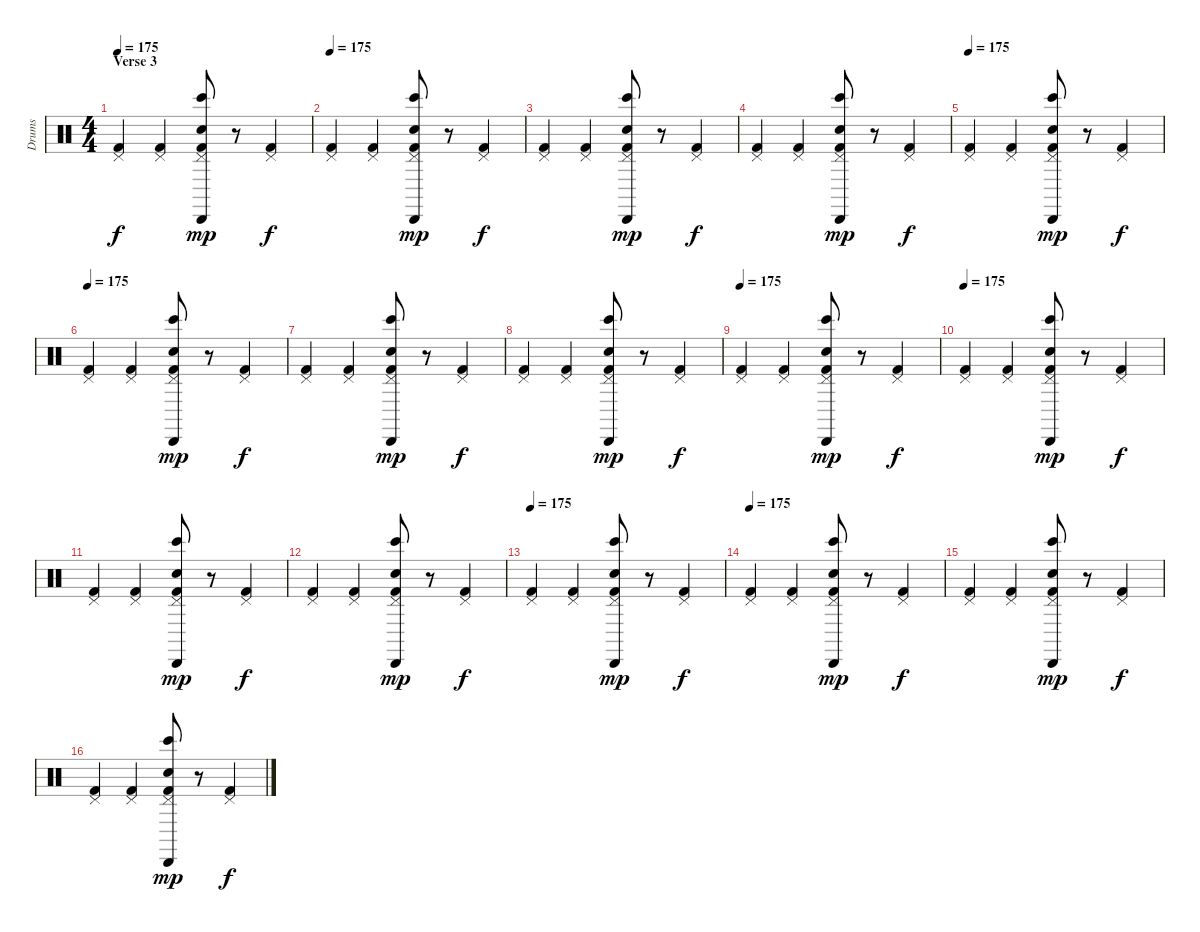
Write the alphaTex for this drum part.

\track ("Drums" "Drums") {instrument percussion}
\staff {score}
\articulation defaults
\ts (4 4)
\section ("" "Verse 3")
\tempo 175
\clef neutral
\ks c
("Pedal Hi-Hat (hit)" "Kick (hit) 2").4{dy f} ("Pedal Hi-Hat (hit)" "Kick (hit) 2").4 ("Cabasa (hit)" "Bongo High (hit)" "Pedal Hi-Hat (hit)" "Snare (hit) 2" "Kick (hit) 2").8{dy mp} r.8{volume 0} ("Pedal Hi-Hat (hit)" "Kick (hit) 2").4{dy f volume 14} |
\tempo 175
("Pedal Hi-Hat (hit)" "Kick (hit) 2").4 ("Pedal Hi-Hat (hit)" "Kick (hit) 2").4 ("Cabasa (hit)" "Bongo High (hit)" "Pedal Hi-Hat (hit)" "Snare (hit) 2" "Kick (hit) 2").8{dy mp} r.8{volume 0} ("Pedal Hi-Hat (hit)" "Kick (hit) 2").4{dy f volume 14} |
("Pedal Hi-Hat (hit)" "Kick (hit) 2").4 ("Pedal Hi-Hat (hit)" "Kick (hit) 2").4 ("Cabasa (hit)" "Bongo High (hit)" "Pedal Hi-Hat (hit)" "Snare (hit) 2" "Kick (hit) 2").8{dy mp} r.8{volume 0} ("Pedal Hi-Hat (hit)" "Kick (hit) 2").4{dy f volume 14} |
("Pedal Hi-Hat (hit)" "Kick (hit) 2").4 ("Pedal Hi-Hat (hit)" "Kick (hit) 2").4 ("Cabasa (hit)" "Bongo High (hit)" "Pedal Hi-Hat (hit)" "Snare (hit) 2" "Kick (hit) 2").8{dy mp} r.8{volume 0} ("Pedal Hi-Hat (hit)" "Kick (hit) 2").4{dy f volume 14} |
\tempo 175
("Pedal Hi-Hat (hit)" "Kick (hit) 2").4 ("Pedal Hi-Hat (hit)" "Kick (hit) 2").4 ("Cabasa (hit)" "Bongo High (hit)" "Pedal Hi-Hat (hit)" "Snare (hit) 2" "Kick (hit) 2").8{dy mp} r.8{volume 0} ("Pedal Hi-Hat (hit)" "Kick (hit) 2").4{dy f volume 14} |
\tempo 175
("Pedal Hi-Hat (hit)" "Kick (hit) 2").4 ("Pedal Hi-Hat (hit)" "Kick (hit) 2").4 ("Cabasa (hit)" "Bongo High (hit)" "Pedal Hi-Hat (hit)" "Snare (hit) 2" "Kick (hit) 2").8{dy mp} r.8{volume 0} ("Pedal Hi-Hat (hit)" "Kick (hit) 2").4{dy f volume 14} |
("Pedal Hi-Hat (hit)" "Kick (hit) 2").4 ("Pedal Hi-Hat (hit)" "Kick (hit) 2").4 ("Cabasa (hit)" "Bongo High (hit)" "Pedal Hi-Hat (hit)" "Snare (hit) 2" "Kick (hit) 2").8{dy mp} r.8{volume 0} ("Pedal Hi-Hat (hit)" "Kick (hit) 2").4{dy f volume 14} |
("Pedal Hi-Hat (hit)" "Kick (hit) 2").4 ("Pedal Hi-Hat (hit)" "Kick (hit) 2").4 ("Cabasa (hit)" "Bongo High (hit)" "Pedal Hi-Hat (hit)" "Snare (hit) 2" "Kick (hit) 2").8{dy mp} r.8{volume 0} ("Pedal Hi-Hat (hit)" "Kick (hit) 2").4{dy f volume 14} |
\tempo 175
("Pedal Hi-Hat (hit)" "Kick (hit) 2").4 ("Pedal Hi-Hat (hit)" "Kick (hit) 2").4 ("Cabasa (hit)" "Bongo High (hit)" "Pedal Hi-Hat (hit)" "Snare (hit) 2" "Kick (hit) 2").8{dy mp} r.8{volume 0} ("Pedal Hi-Hat (hit)" "Kick (hit) 2").4{dy f volume 14} |
\tempo 175
("Pedal Hi-Hat (hit)" "Kick (hit) 2").4 ("Pedal Hi-Hat (hit)" "Kick (hit) 2").4 ("Cabasa (hit)" "Bongo High (hit)" "Pedal Hi-Hat (hit)" "Snare (hit) 2" "Kick (hit) 2").8{dy mp} r.8{volume 0} ("Pedal Hi-Hat (hit)" "Kick (hit) 2").4{dy f volume 14} |
("Pedal Hi-Hat (hit)" "Kick (hit) 2").4 ("Pedal Hi-Hat (hit)" "Kick (hit) 2").4 ("Cabasa (hit)" "Bongo High (hit)" "Pedal Hi-Hat (hit)" "Snare (hit) 2" "Kick (hit) 2").8{dy mp} r.8{volume 0} ("Pedal Hi-Hat (hit)" "Kick (hit) 2").4{dy f volume 14} |
("Pedal Hi-Hat (hit)" "Kick (hit) 2").4 ("Pedal Hi-Hat (hit)" "Kick (hit) 2").4 ("Cabasa (hit)" "Bongo High (hit)" "Pedal Hi-Hat (hit)" "Snare (hit) 2" "Kick (hit) 2").8{dy mp} r.8{volume 0} ("Pedal Hi-Hat (hit)" "Kick (hit) 2").4{dy f volume 14} |
\tempo 175
("Pedal Hi-Hat (hit)" "Kick (hit) 2").4 ("Pedal Hi-Hat (hit)" "Kick (hit) 2").4 ("Cabasa (hit)" "Bongo High (hit)" "Pedal Hi-Hat (hit)" "Snare (hit) 2" "Kick (hit) 2").8{dy mp} r.8{volume 0} ("Pedal Hi-Hat (hit)" "Kick (hit) 2").4{dy f volume 14} |
\tempo 175
("Pedal Hi-Hat (hit)" "Kick (hit) 2").4 ("Pedal Hi-Hat (hit)" "Kick (hit) 2").4 ("Cabasa (hit)" "Bongo High (hit)" "Pedal Hi-Hat (hit)" "Snare (hit) 2" "Kick (hit) 2").8{dy mp} r.8{volume 0} ("Pedal Hi-Hat (hit)" "Kick (hit) 2").4{dy f volume 14} |
("Pedal Hi-Hat (hit)" "Kick (hit) 2").4 ("Pedal Hi-Hat (hit)" "Kick (hit) 2").4 ("Cabasa (hit)" "Bongo High (hit)" "Pedal Hi-Hat (hit)" "Snare (hit) 2" "Kick (hit) 2").8{dy mp} r.8{volume 0} ("Pedal Hi-Hat (hit)" "Kick (hit) 2").4{dy f volume 14} |
("Pedal Hi-Hat (hit)" "Kick (hit) 2").4 ("Pedal Hi-Hat (hit)" "Kick (hit) 2").4 ("Cabasa (hit)" "Bongo High (hit)" "Pedal Hi-Hat (hit)" "Snare (hit) 2" "Kick (hit) 2").8{dy mp} r.8{volume 0} ("Pedal Hi-Hat (hit)" "Kick (hit) 2").4{dy f volume 14}
